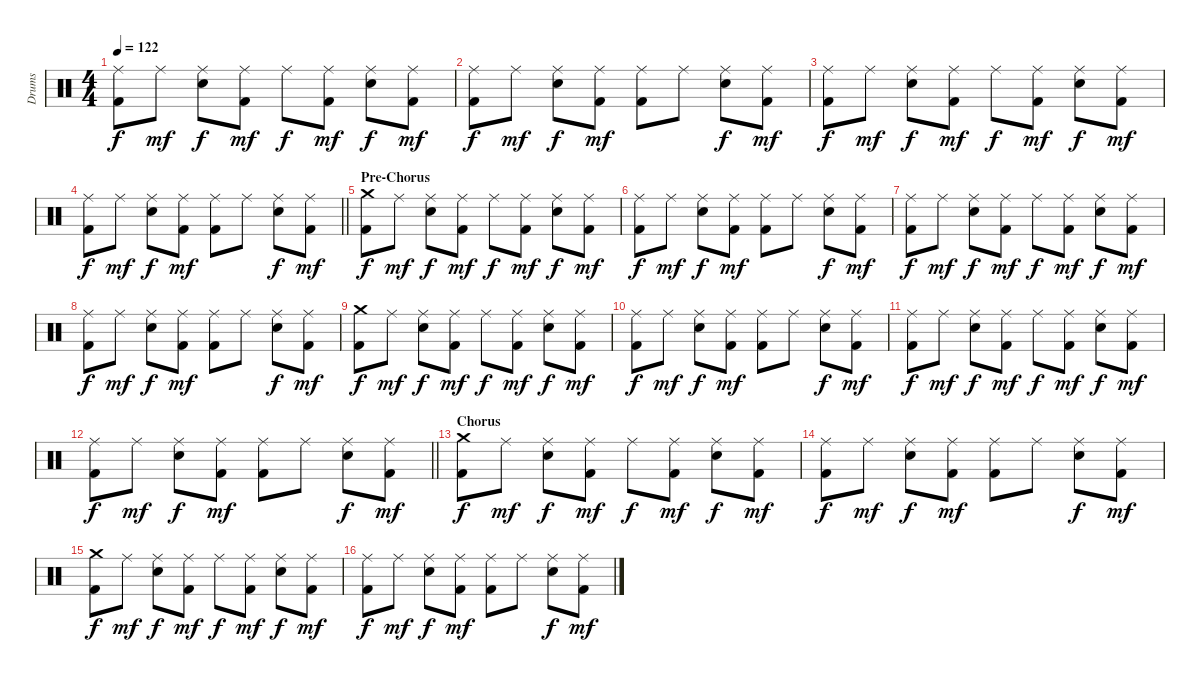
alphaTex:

\track ("Drums" "Drums") {instrument percussion}
\staff {score}
\articulation defaults
\ts (4 4)
\tempo 122
\clef neutral
\ks c
("Ride (middle)" "Kick (hit) 2").8{dy f} "Ride (middle)".8{dy mf} ("Ride (middle)" "Snare (hit) 2").8{dy f} ("Ride (middle)" "Kick (hit) 2").8{dy mf} "Ride (middle)".8{dy f} ("Ride (middle)" "Kick (hit) 2").8{dy mf} ("Ride (middle)" "Snare (hit) 2").8{dy f} ("Ride (middle)" "Kick (hit) 2").8{dy mf} |
("Ride (middle)" "Kick (hit) 2").8{dy f} "Ride (middle)".8{dy mf} ("Ride (middle)" "Snare (hit) 2").8{dy f} ("Ride (middle)" "Kick (hit) 2").8{dy mf} ("Ride (middle)" "Kick (hit) 2").8 "Ride (middle)".8 ("Ride (middle)" "Snare (hit) 2").8{dy f} ("Ride (middle)" "Kick (hit) 2").8{dy mf} |
("Ride (middle)" "Kick (hit) 2").8{dy f} "Ride (middle)".8{dy mf} ("Ride (middle)" "Snare (hit) 2").8{dy f} ("Ride (middle)" "Kick (hit) 2").8{dy mf} "Ride (middle)".8{dy f} ("Ride (middle)" "Kick (hit) 2").8{dy mf} ("Ride (middle)" "Snare (hit) 2").8{dy f} ("Ride (middle)" "Kick (hit) 2").8{dy mf} |
\barLineRight lightlight
("Ride (middle)" "Kick (hit) 2").8{dy f} "Ride (middle)".8{dy mf} ("Ride (middle)" "Snare (hit) 2").8{dy f} ("Ride (middle)" "Kick (hit) 2").8{dy mf} ("Ride (middle)" "Kick (hit) 2").8 "Ride (middle)".8 ("Ride (middle)" "Snare (hit) 2").8{dy f} ("Ride (middle)" "Kick (hit) 2").8{dy mf} |
\section ("" "Pre-Chorus")
("Crash medium (hit)" "Kick (hit) 2").8{dy f} "Ride (middle)".8{dy mf} ("Ride (middle)" "Snare (hit) 2").8{dy f} ("Ride (middle)" "Kick (hit) 2").8{dy mf} "Ride (middle)".8{dy f} ("Ride (middle)" "Kick (hit) 2").8{dy mf} ("Ride (middle)" "Snare (hit) 2").8{dy f} ("Ride (middle)" "Kick (hit) 2").8{dy mf} |
("Ride (middle)" "Kick (hit) 2").8{dy f} "Ride (middle)".8{dy mf} ("Ride (middle)" "Snare (hit) 2").8{dy f} ("Ride (middle)" "Kick (hit) 2").8{dy mf} ("Ride (middle)" "Kick (hit) 2").8 "Ride (middle)".8 ("Ride (middle)" "Snare (hit) 2").8{dy f} ("Ride (middle)" "Kick (hit) 2").8{dy mf} |
("Ride (middle)" "Kick (hit) 2").8{dy f} "Ride (middle)".8{dy mf} ("Ride (middle)" "Snare (hit) 2").8{dy f} ("Ride (middle)" "Kick (hit) 2").8{dy mf} "Ride (middle)".8{dy f} ("Ride (middle)" "Kick (hit) 2").8{dy mf} ("Ride (middle)" "Snare (hit) 2").8{dy f} ("Ride (middle)" "Kick (hit) 2").8{dy mf} |
("Ride (middle)" "Kick (hit) 2").8{dy f} "Ride (middle)".8{dy mf} ("Ride (middle)" "Snare (hit) 2").8{dy f} ("Ride (middle)" "Kick (hit) 2").8{dy mf} ("Ride (middle)" "Kick (hit) 2").8 "Ride (middle)".8 ("Ride (middle)" "Snare (hit) 2").8{dy f} ("Ride (middle)" "Kick (hit) 2").8{dy mf} |
("Crash medium (hit)" "Kick (hit) 2").8{dy f} "Ride (middle)".8{dy mf} ("Ride (middle)" "Snare (hit) 2").8{dy f} ("Ride (middle)" "Kick (hit) 2").8{dy mf} "Ride (middle)".8{dy f} ("Ride (middle)" "Kick (hit) 2").8{dy mf} ("Ride (middle)" "Snare (hit) 2").8{dy f} ("Ride (middle)" "Kick (hit) 2").8{dy mf} |
("Ride (middle)" "Kick (hit) 2").8{dy f} "Ride (middle)".8{dy mf} ("Ride (middle)" "Snare (hit) 2").8{dy f} ("Ride (middle)" "Kick (hit) 2").8{dy mf} ("Ride (middle)" "Kick (hit) 2").8 "Ride (middle)".8 ("Ride (middle)" "Snare (hit) 2").8{dy f} ("Ride (middle)" "Kick (hit) 2").8{dy mf} |
("Ride (middle)" "Kick (hit) 2").8{dy f} "Ride (middle)".8{dy mf} ("Ride (middle)" "Snare (hit) 2").8{dy f} ("Ride (middle)" "Kick (hit) 2").8{dy mf} "Ride (middle)".8{dy f} ("Ride (middle)" "Kick (hit) 2").8{dy mf} ("Ride (middle)" "Snare (hit) 2").8{dy f} ("Ride (middle)" "Kick (hit) 2").8{dy mf} |
\barLineRight lightlight
("Ride (middle)" "Kick (hit) 2").8{dy f} "Ride (middle)".8{dy mf} ("Ride (middle)" "Snare (hit) 2").8{dy f} ("Ride (middle)" "Kick (hit) 2").8{dy mf} ("Ride (middle)" "Kick (hit) 2").8 "Ride (middle)".8 ("Ride (middle)" "Snare (hit) 2").8{dy f} ("Ride (middle)" "Kick (hit) 2").8{dy mf} |
\section ("" "Chorus")
("Crash medium (hit)" "Kick (hit) 2").8{dy f} "Ride (middle)".8{dy mf} ("Ride (middle)" "Snare (hit) 2").8{dy f} ("Ride (middle)" "Kick (hit) 2").8{dy mf} "Ride (middle)".8{dy f} ("Ride (middle)" "Kick (hit) 2").8{dy mf} ("Ride (middle)" "Snare (hit) 2").8{dy f} ("Ride (middle)" "Kick (hit) 2").8{dy mf} |
("Ride (middle)" "Kick (hit) 2").8{dy f} "Ride (middle)".8{dy mf} ("Ride (middle)" "Snare (hit) 2").8{dy f} ("Ride (middle)" "Kick (hit) 2").8{dy mf} ("Ride (middle)" "Kick (hit) 2").8 "Ride (middle)".8 ("Ride (middle)" "Snare (hit) 2").8{dy f} ("Ride (middle)" "Kick (hit) 2").8{dy mf} |
("Crash medium (hit)" "Kick (hit) 2").8{dy f} "Ride (middle)".8{dy mf} ("Ride (middle)" "Snare (hit) 2").8{dy f} ("Ride (middle)" "Kick (hit) 2").8{dy mf} "Ride (middle)".8{dy f} ("Ride (middle)" "Kick (hit) 2").8{dy mf} ("Ride (middle)" "Snare (hit) 2").8{dy f} ("Ride (middle)" "Kick (hit) 2").8{dy mf} |
("Ride (middle)" "Kick (hit) 2").8{dy f} "Ride (middle)".8{dy mf} ("Ride (middle)" "Snare (hit) 2").8{dy f} ("Ride (middle)" "Kick (hit) 2").8{dy mf} ("Ride (middle)" "Kick (hit) 2").8 "Ride (middle)".8 ("Ride (middle)" "Snare (hit) 2").8{dy f} ("Ride (middle)" "Kick (hit) 2").8{dy mf}
